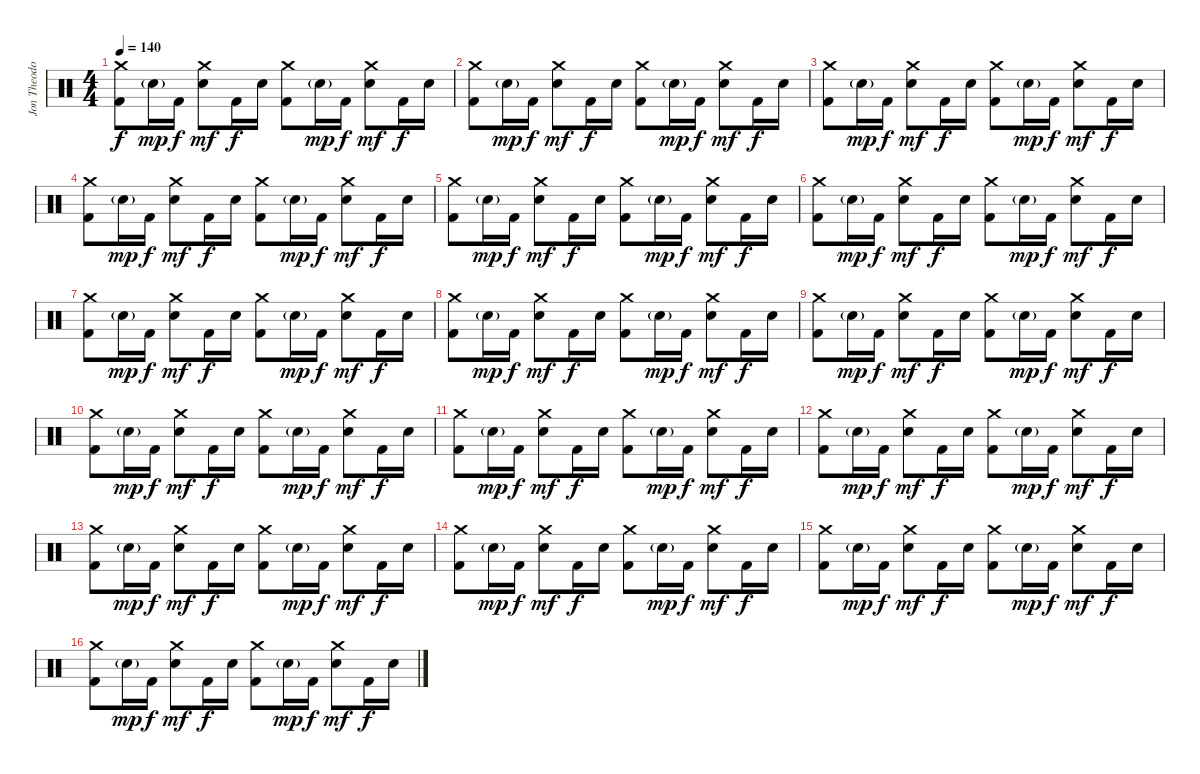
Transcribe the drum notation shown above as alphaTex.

\track ("Jon Theodore - Drums" "Jon Theodo") {instrument percussion}
\staff {score}
\articulation defaults
\ts (4 4)
\tempo 140
\clef neutral
\ks c
("Crash medium (hit)" "Kick (hit) 2").8{dy f} "Electric Snare (hit)"{g}.16{dy mp} "Kick (hit) 2".16{dy f} ("Crash medium (hit)" "Electric Snare (hit)").8{dy mf} "Kick (hit) 2".16{dy f} "Electric Snare (hit)".16 ("Crash medium (hit)" "Kick (hit) 2").8 "Electric Snare (hit)"{g}.16{dy mp} "Kick (hit) 2".16{dy f} ("Crash medium (hit)" "Electric Snare (hit)").8{dy mf} "Kick (hit) 2".16{dy f} "Electric Snare (hit)".16 |
("Crash medium (hit)" "Kick (hit) 2").8 "Electric Snare (hit)"{g}.16{dy mp} "Kick (hit) 2".16{dy f} ("Crash medium (hit)" "Electric Snare (hit)").8{dy mf} "Kick (hit) 2".16{dy f} "Electric Snare (hit)".16 ("Crash medium (hit)" "Kick (hit) 2").8 "Electric Snare (hit)"{g}.16{dy mp} "Kick (hit) 2".16{dy f} ("Crash medium (hit)" "Electric Snare (hit)").8{dy mf} "Kick (hit) 2".16{dy f} "Electric Snare (hit)".16 |
("Crash medium (hit)" "Kick (hit) 2").8 "Electric Snare (hit)"{g}.16{dy mp} "Kick (hit) 2".16{dy f} ("Crash medium (hit)" "Electric Snare (hit)").8{dy mf} "Kick (hit) 2".16{dy f} "Electric Snare (hit)".16 ("Crash medium (hit)" "Kick (hit) 2").8 "Electric Snare (hit)"{g}.16{dy mp} "Kick (hit) 2".16{dy f} ("Crash medium (hit)" "Electric Snare (hit)").8{dy mf} "Kick (hit) 2".16{dy f} "Electric Snare (hit)".16 |
("Crash medium (hit)" "Kick (hit) 2").8 "Electric Snare (hit)"{g}.16{dy mp} "Kick (hit) 2".16{dy f} ("Crash medium (hit)" "Electric Snare (hit)").8{dy mf} "Kick (hit) 2".16{dy f} "Electric Snare (hit)".16 ("Crash medium (hit)" "Kick (hit) 2").8 "Electric Snare (hit)"{g}.16{dy mp} "Kick (hit) 2".16{dy f} ("Crash medium (hit)" "Electric Snare (hit)").8{dy mf} "Kick (hit) 2".16{dy f} "Electric Snare (hit)".16 |
("Crash medium (hit)" "Kick (hit) 2").8 "Electric Snare (hit)"{g}.16{dy mp} "Kick (hit) 2".16{dy f} ("Crash medium (hit)" "Electric Snare (hit)").8{dy mf} "Kick (hit) 2".16{dy f} "Electric Snare (hit)".16 ("Crash medium (hit)" "Kick (hit) 2").8 "Electric Snare (hit)"{g}.16{dy mp} "Kick (hit) 2".16{dy f} ("Crash medium (hit)" "Electric Snare (hit)").8{dy mf} "Kick (hit) 2".16{dy f} "Electric Snare (hit)".16 |
("Crash medium (hit)" "Kick (hit) 2").8 "Electric Snare (hit)"{g}.16{dy mp} "Kick (hit) 2".16{dy f} ("Crash medium (hit)" "Electric Snare (hit)").8{dy mf} "Kick (hit) 2".16{dy f} "Electric Snare (hit)".16 ("Crash medium (hit)" "Kick (hit) 2").8 "Electric Snare (hit)"{g}.16{dy mp} "Kick (hit) 2".16{dy f} ("Crash medium (hit)" "Electric Snare (hit)").8{dy mf} "Kick (hit) 2".16{dy f} "Electric Snare (hit)".16 |
("Crash medium (hit)" "Kick (hit) 2").8 "Electric Snare (hit)"{g}.16{dy mp} "Kick (hit) 2".16{dy f} ("Crash medium (hit)" "Electric Snare (hit)").8{dy mf} "Kick (hit) 2".16{dy f} "Electric Snare (hit)".16 ("Crash medium (hit)" "Kick (hit) 2").8 "Electric Snare (hit)"{g}.16{dy mp} "Kick (hit) 2".16{dy f} ("Crash medium (hit)" "Electric Snare (hit)").8{dy mf} "Kick (hit) 2".16{dy f} "Electric Snare (hit)".16 |
("Crash medium (hit)" "Kick (hit) 2").8 "Electric Snare (hit)"{g}.16{dy mp} "Kick (hit) 2".16{dy f} ("Crash medium (hit)" "Electric Snare (hit)").8{dy mf} "Kick (hit) 2".16{dy f} "Electric Snare (hit)".16 ("Crash medium (hit)" "Kick (hit) 2").8 "Electric Snare (hit)"{g}.16{dy mp} "Kick (hit) 2".16{dy f} ("Crash medium (hit)" "Electric Snare (hit)").8{dy mf} "Kick (hit) 2".16{dy f} "Electric Snare (hit)".16 |
("Crash medium (hit)" "Kick (hit) 2").8 "Electric Snare (hit)"{g}.16{dy mp} "Kick (hit) 2".16{dy f} ("Crash medium (hit)" "Electric Snare (hit)").8{dy mf} "Kick (hit) 2".16{dy f} "Electric Snare (hit)".16 ("Crash medium (hit)" "Kick (hit) 2").8 "Electric Snare (hit)"{g}.16{dy mp} "Kick (hit) 2".16{dy f} ("Crash medium (hit)" "Electric Snare (hit)").8{dy mf} "Kick (hit) 2".16{dy f} "Electric Snare (hit)".16 |
("Crash medium (hit)" "Kick (hit) 2").8 "Electric Snare (hit)"{g}.16{dy mp} "Kick (hit) 2".16{dy f} ("Crash medium (hit)" "Electric Snare (hit)").8{dy mf} "Kick (hit) 2".16{dy f} "Electric Snare (hit)".16 ("Crash medium (hit)" "Kick (hit) 2").8 "Electric Snare (hit)"{g}.16{dy mp} "Kick (hit) 2".16{dy f} ("Crash medium (hit)" "Electric Snare (hit)").8{dy mf} "Kick (hit) 2".16{dy f} "Electric Snare (hit)".16 |
("Crash medium (hit)" "Kick (hit) 2").8 "Electric Snare (hit)"{g}.16{dy mp} "Kick (hit) 2".16{dy f} ("Crash medium (hit)" "Electric Snare (hit)").8{dy mf} "Kick (hit) 2".16{dy f} "Electric Snare (hit)".16 ("Crash medium (hit)" "Kick (hit) 2").8 "Electric Snare (hit)"{g}.16{dy mp} "Kick (hit) 2".16{dy f} ("Crash medium (hit)" "Electric Snare (hit)").8{dy mf} "Kick (hit) 2".16{dy f} "Electric Snare (hit)".16 |
("Crash medium (hit)" "Kick (hit) 2").8 "Electric Snare (hit)"{g}.16{dy mp} "Kick (hit) 2".16{dy f} ("Crash medium (hit)" "Electric Snare (hit)").8{dy mf} "Kick (hit) 2".16{dy f} "Electric Snare (hit)".16 ("Crash medium (hit)" "Kick (hit) 2").8 "Electric Snare (hit)"{g}.16{dy mp} "Kick (hit) 2".16{dy f} ("Crash medium (hit)" "Electric Snare (hit)").8{dy mf} "Kick (hit) 2".16{dy f} "Electric Snare (hit)".16 |
("Crash medium (hit)" "Kick (hit) 2").8 "Electric Snare (hit)"{g}.16{dy mp} "Kick (hit) 2".16{dy f} ("Crash medium (hit)" "Electric Snare (hit)").8{dy mf} "Kick (hit) 2".16{dy f} "Electric Snare (hit)".16 ("Crash medium (hit)" "Kick (hit) 2").8 "Electric Snare (hit)"{g}.16{dy mp} "Kick (hit) 2".16{dy f} ("Crash medium (hit)" "Electric Snare (hit)").8{dy mf} "Kick (hit) 2".16{dy f} "Electric Snare (hit)".16 |
("Crash medium (hit)" "Kick (hit) 2").8 "Electric Snare (hit)"{g}.16{dy mp} "Kick (hit) 2".16{dy f} ("Crash medium (hit)" "Electric Snare (hit)").8{dy mf} "Kick (hit) 2".16{dy f} "Electric Snare (hit)".16 ("Crash medium (hit)" "Kick (hit) 2").8 "Electric Snare (hit)"{g}.16{dy mp} "Kick (hit) 2".16{dy f} ("Crash medium (hit)" "Electric Snare (hit)").8{dy mf} "Kick (hit) 2".16{dy f} "Electric Snare (hit)".16 |
("Crash medium (hit)" "Kick (hit) 2").8 "Electric Snare (hit)"{g}.16{dy mp} "Kick (hit) 2".16{dy f} ("Crash medium (hit)" "Electric Snare (hit)").8{dy mf} "Kick (hit) 2".16{dy f} "Electric Snare (hit)".16 ("Crash medium (hit)" "Kick (hit) 2").8 "Electric Snare (hit)"{g}.16{dy mp} "Kick (hit) 2".16{dy f} ("Crash medium (hit)" "Electric Snare (hit)").8{dy mf} "Kick (hit) 2".16{dy f} "Electric Snare (hit)".16 |
("Crash medium (hit)" "Kick (hit) 2").8 "Electric Snare (hit)"{g}.16{dy mp} "Kick (hit) 2".16{dy f} ("Crash medium (hit)" "Electric Snare (hit)").8{dy mf} "Kick (hit) 2".16{dy f} "Electric Snare (hit)".16 ("Crash medium (hit)" "Kick (hit) 2").8 "Electric Snare (hit)"{g}.16{dy mp} "Kick (hit) 2".16{dy f} ("Crash medium (hit)" "Electric Snare (hit)").8{dy mf} "Kick (hit) 2".16{dy f} "Electric Snare (hit)".16
